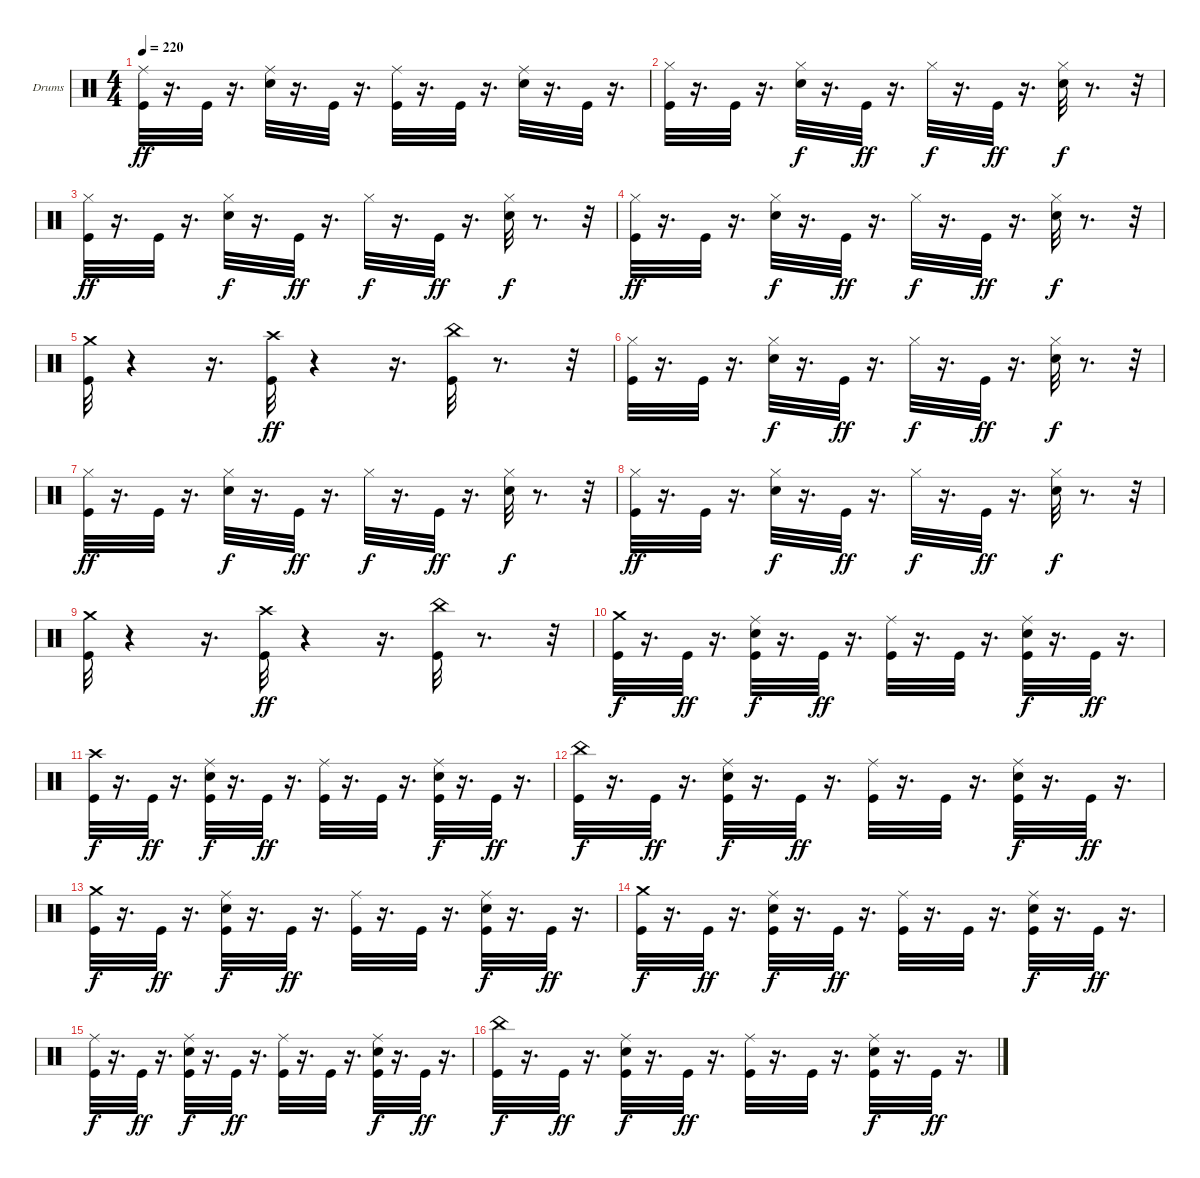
\defaultSystemsLayout 4
\bracketExtendMode groupsimilarinstruments
\firstSystemTrackNameOrientation horizontal
\otherSystemsTrackNameOrientation horizontal
\track ("Дмитрий Кривенков" "Drums") {instrument percussion}
\staff {score}
\articulation defaults
\ts (4 4)
\tempo 220
\clef neutral
\ks c
("Ride (middle)" "Kick (hit)").32{dy ff} r.16{d} "Kick (hit)".32 r.16{d} ("Ride (middle)" "Snare (hit) 2").32 r.16{d} "Kick (hit)".32 r.16{d} ("Ride (middle)" "Kick (hit)").32 r.16{d} "Kick (hit)".32 r.16{d} ("Ride (middle)" "Snare (hit) 2").32 r.16{d} "Kick (hit)".32 r.16{d} |
("Kick (hit)" "Hi-Hat (closed)").32 r.16{d} "Kick (hit)".32 r.16{d} ("Snare (hit) 2" "Hi-Hat (closed)").32{dy f} r.16{d} "Kick (hit)".32{dy ff} r.16{d} "Hi-Hat (closed)".32{dy f} r.16{d} "Kick (hit)".32{dy ff} r.16{d} ("Snare (hit) 2" "Hi-Hat (closed)").32{dy f} r.8{d} r.32 |
("Kick (hit)" "Hi-Hat (closed)").32{dy ff} r.16{d} "Kick (hit)".32 r.16{d} ("Snare (hit) 2" "Hi-Hat (closed)").32{dy f} r.16{d} "Kick (hit)".32{dy ff} r.16{d} "Hi-Hat (closed)".32{dy f} r.16{d} "Kick (hit)".32{dy ff} r.16{d} ("Snare (hit) 2" "Hi-Hat (closed)").32{dy f} r.8{d} r.32 |
("Kick (hit)" "Hi-Hat (closed)").32{dy ff} r.16{d} "Kick (hit)".32 r.16{d} ("Snare (hit) 2" "Hi-Hat (closed)").32{dy f} r.16{d} "Kick (hit)".32{dy ff} r.16{d} "Hi-Hat (closed)".32{dy f} r.16{d} "Kick (hit)".32{dy ff} r.16{d} ("Snare (hit) 2" "Hi-Hat (closed)").32{dy f} r.8{d} r.32 |
("Crash medium (hit)" "Kick (hit)").32 r.4 r.16{d} ("Kick (hit)" "Crash high (hit)").32{dy ff} r.4 r.16{d} ("Kick (hit)" "China (hit)").32 r.8{d} r.32 |
("Kick (hit)" "Hi-Hat (closed)").32 r.16{d} "Kick (hit)".32 r.16{d} ("Snare (hit) 2" "Hi-Hat (closed)").32{dy f} r.16{d} "Kick (hit)".32{dy ff} r.16{d} "Hi-Hat (closed)".32{dy f} r.16{d} "Kick (hit)".32{dy ff} r.16{d} ("Snare (hit) 2" "Hi-Hat (closed)").32{dy f} r.8{d} r.32 |
("Kick (hit)" "Hi-Hat (closed)").32{dy ff} r.16{d} "Kick (hit)".32 r.16{d} ("Snare (hit) 2" "Hi-Hat (closed)").32{dy f} r.16{d} "Kick (hit)".32{dy ff} r.16{d} "Hi-Hat (closed)".32{dy f} r.16{d} "Kick (hit)".32{dy ff} r.16{d} ("Snare (hit) 2" "Hi-Hat (closed)").32{dy f} r.8{d} r.32 |
("Kick (hit)" "Hi-Hat (closed)").32{dy ff} r.16{d} "Kick (hit)".32 r.16{d} ("Snare (hit) 2" "Hi-Hat (closed)").32{dy f} r.16{d} "Kick (hit)".32{dy ff} r.16{d} "Hi-Hat (closed)".32{dy f} r.16{d} "Kick (hit)".32{dy ff} r.16{d} ("Snare (hit) 2" "Hi-Hat (closed)").32{dy f} r.8{d} r.32 |
("Crash medium (hit)" "Kick (hit)").32 r.4 r.16{d} ("Kick (hit)" "Crash high (hit)").32{dy ff} r.4 r.16{d} ("Kick (hit)" "China (hit)").32 r.8{d} r.32 |
("Crash medium (hit)" "Kick (hit)").32{dy f} r.16{d} "Kick (hit)".32{dy ff} r.16{d} ("Snare (hit) 2" "Kick (hit)" "Ride (middle)").32{dy f} r.16{d} "Kick (hit)".32{dy ff} r.16{d} ("Kick (hit)" "Ride (middle)").32 r.16{d} "Kick (hit)".32 r.16{d} ("Ride (middle)" "Snare (hit) 2" "Kick (hit)").32{dy f} r.16{d} "Kick (hit)".32{dy ff} r.16{d} |
("Crash high (hit)" "Kick (hit)").32{dy f} r.16{d} "Kick (hit)".32{dy ff} r.16{d} ("Snare (hit) 2" "Kick (hit)" "Ride (middle)").32{dy f} r.16{d} "Kick (hit)".32{dy ff} r.16{d} ("Kick (hit)" "Ride (middle)").32 r.16{d} "Kick (hit)".32 r.16{d} ("Ride (middle)" "Snare (hit) 2" "Kick (hit)").32{dy f} r.16{d} "Kick (hit)".32{dy ff} r.16{d} |
("China (hit)" "Kick (hit)").32{dy f} r.16{d} "Kick (hit)".32{dy ff} r.16{d} ("Snare (hit) 2" "Kick (hit)" "Ride (middle)").32{dy f} r.16{d} "Kick (hit)".32{dy ff} r.16{d} ("Kick (hit)" "Ride (middle)").32 r.16{d} "Kick (hit)".32 r.16{d} ("Ride (middle)" "Snare (hit) 2" "Kick (hit)").32{dy f} r.16{d} "Kick (hit)".32{dy ff} r.16{d} |
("Crash medium (hit)" "Kick (hit)").32{dy f} r.16{d} "Kick (hit)".32{dy ff} r.16{d} ("Snare (hit) 2" "Kick (hit)" "Ride (middle)").32{dy f} r.16{d} "Kick (hit)".32{dy ff} r.16{d} ("Kick (hit)" "Ride (middle)").32 r.16{d} "Kick (hit)".32 r.16{d} ("Ride (middle)" "Snare (hit) 2" "Kick (hit)").32{dy f} r.16{d} "Kick (hit)".32{dy ff} r.16{d} |
("Crash medium (hit)" "Kick (hit)").32{dy f} r.16{d} "Kick (hit)".32{dy ff} r.16{d} ("Snare (hit) 2" "Kick (hit)" "Ride (middle)").32{dy f} r.16{d} "Kick (hit)".32{dy ff} r.16{d} ("Kick (hit)" "Ride (middle)").32 r.16{d} "Kick (hit)".32 r.16{d} ("Ride (middle)" "Snare (hit) 2" "Kick (hit)").32{dy f} r.16{d} "Kick (hit)".32{dy ff} r.16{d} |
("Ride (middle)" "Kick (hit)").32{dy f} r.16{d} "Kick (hit)".32{dy ff} r.16{d} ("Snare (hit) 2" "Kick (hit)" "Ride (middle)").32{dy f} r.16{d} "Kick (hit)".32{dy ff} r.16{d} ("Kick (hit)" "Ride (middle)").32 r.16{d} "Kick (hit)".32 r.16{d} ("Ride (middle)" "Snare (hit) 2" "Kick (hit)").32{dy f} r.16{d} "Kick (hit)".32{dy ff} r.16{d} |
("China (hit)" "Kick (hit)").32{dy f} r.16{d} "Kick (hit)".32{dy ff} r.16{d} ("Snare (hit) 2" "Kick (hit)" "Ride (middle)").32{dy f} r.16{d} "Kick (hit)".32{dy ff} r.16{d} ("Kick (hit)" "Ride (middle)").32 r.16{d} "Kick (hit)".32 r.16{d} ("Ride (middle)" "Snare (hit) 2" "Kick (hit)").32{dy f} r.16{d} "Kick (hit)".32{dy ff} r.16{d}
